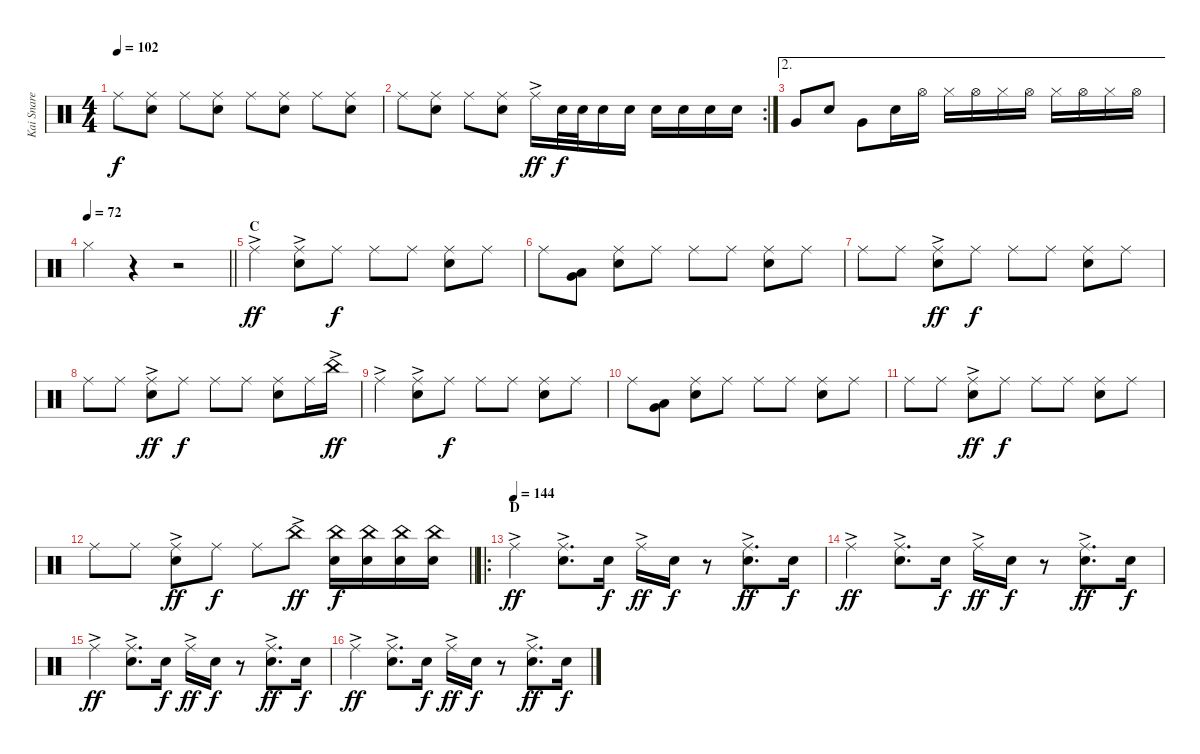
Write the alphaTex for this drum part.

\track ("Kai Snare" "Kai Snare") {instrument percussion}
\staff {score}
\articulation defaults
\ts (4 4)
\tempo 102
\clef neutral
\ks c "Ride (middle)".8{dy f}
("Ride (middle)" "Snare (hit) 2").8 "Ride (middle)".8 ("Ride (middle)" "Snare (hit) 2").8 "Ride (middle)".8 ("Ride (middle)" "Snare (hit) 2").8 "Ride (middle)".8 ("Ride (middle)" "Snare (hit) 2").8 |
\rc 2 "Ride (middle)".8
("Ride (middle)" "Snare (hit) 2").8 "Ride (middle)".8 ("Ride (middle)" "Snare (hit) 2").8 "Ride (middle)"{ac}.16{dy ff} "Snare (hit) 2".32{dy f} "Snare (hit) 2".32 "Snare (hit) 2".16 "Snare (hit) 2".16 "Snare (hit) 2".16 "Snare (hit) 2".16 "Snare (hit) 2".16 "Snare (hit) 2".16 |
\ae 2 "Very Low Tom (hit)".8 "Snare (hit) 2".8 "Very Low Tom (hit)".8 "Snare (hit) 2".16 "Hi-Hat (open)".16 "Hi-Hat (closed)".16 "Hi-Hat (open)".16 "Hi-Hat (closed)".16 "Hi-Hat (open)".16 "Hi-Hat (closed)".16 "Hi-Hat (open)".16 "Hi-Hat (closed)".16 "Hi-Hat (open)".16
|
\tempo 72
\barLineRight lightlight "Hi-Hat (closed)".4
r.4 r.2 |
\section ("" "C")
"Ride (middle)"{ac}.4{dy ff} ("Ride (middle)"{ac} "Snare (hit) 2").8 "Ride (middle)".8{dy f} "Ride (middle)".8 "Ride (middle)".8 ("Ride (middle)" "Snare (hit) 2").8 "Ride (middle)".8 |
"Ride (middle)".8 ("Very Low Tom (hit)" "Low Tom (hit)").8 ("Ride (middle)" "Snare (hit) 2").8 "Ride (middle)".8 "Ride (middle)".8 "Ride (middle)".8 ("Ride (middle)" "Snare (hit) 2").8 "Ride (middle)".8 |
"Ride (middle)".8 "Ride (middle)".8 ("Ride (middle)"{ac} "Snare (hit) 2").8{dy ff} "Ride (middle)".8{dy f} "Ride (middle)".8 "Ride (middle)".8 ("Ride (middle)" "Snare (hit) 2").8 "Ride (middle)".8 |
"Ride (middle)".8 "Ride (middle)".8 ("Ride (middle)"{ac} "Snare (hit) 2").8{dy ff} "Ride (middle)".8{dy f} "Ride (middle)".8 "Ride (middle)".8 ("Ride (middle)" "Snare (hit) 2").8 "Ride (middle)".16 "China (hit)"{ac}.16{dy ff} |
"Ride (middle)"{ac}.4 ("Ride (middle)"{ac} "Snare (hit) 2").8 "Ride (middle)".8{dy f} "Ride (middle)".8 "Ride (middle)".8 ("Ride (middle)" "Snare (hit) 2").8 "Ride (middle)".8 |
"Ride (middle)".8 ("Very Low Tom (hit)" "Low Tom (hit)").8 ("Ride (middle)" "Snare (hit) 2").8 "Ride (middle)".8 "Ride (middle)".8 "Ride (middle)".8 ("Ride (middle)" "Snare (hit) 2").8 "Ride (middle)".8 |
"Ride (middle)".8 "Ride (middle)".8 ("Ride (middle)"{ac} "Snare (hit) 2").8{dy ff} "Ride (middle)".8{dy f} "Ride (middle)".8 "Ride (middle)".8 ("Ride (middle)" "Snare (hit) 2").8 "Ride (middle)".8 |
\barLineRight lightlight "Ride (middle)".8 "Ride (middle)".8
("Ride (middle)"{ac} "Snare (hit) 2").8{dy ff} "Ride (middle)".8{dy f} "Ride (middle)".8 "China (hit)"{ac}.8{dy ff} ("China (hit)" "Snare (hit) 2").16{dy f} ("China (hit)" "Snare (hit) 2").16 ("China (hit)" "Snare (hit) 2").16 ("China (hit)" "Snare (hit) 2").16 |
\ro
\section ("" "D")
\tempo (144)
"Ride (middle)"{ac}.4{dy ff} ("Ride (middle)"{ac} "Snare (hit) 2").8{d} "Snare (hit) 2".16{dy f} "Ride (middle)"{ac}.16{dy ff} "Snare (hit) 2".16{dy f} r.8 ("Ride (middle)"{ac} "Snare (hit) 2").8{d dy ff} "Snare (hit) 2".16{dy f} |
"Ride (middle)"{ac}.4{dy ff} ("Ride (middle)"{ac} "Snare (hit) 2").8{d} "Snare (hit) 2".16{dy f} "Ride (middle)"{ac}.16{dy ff} "Snare (hit) 2".16{dy f} r.8 ("Ride (middle)"{ac} "Snare (hit) 2").8{d dy ff} "Snare (hit) 2".16{dy f} |
"Ride (middle)"{ac}.4{dy ff} ("Ride (middle)"{ac} "Snare (hit) 2").8{d} "Snare (hit) 2".16{dy f} "Ride (middle)"{ac}.16{dy ff} "Snare (hit) 2".16{dy f} r.8 ("Ride (middle)"{ac} "Snare (hit) 2").8{d dy ff} "Snare (hit) 2".16{dy f} |
"Ride (middle)"{ac}.4{dy ff} ("Ride (middle)"{ac} "Snare (hit) 2").8{d} "Snare (hit) 2".16{dy f} "Ride (middle)"{ac}.16{dy ff} "Snare (hit) 2".16{dy f} r.8 ("Ride (middle)"{ac} "Snare (hit) 2").8{d dy ff} "Snare (hit) 2".16{dy f}
